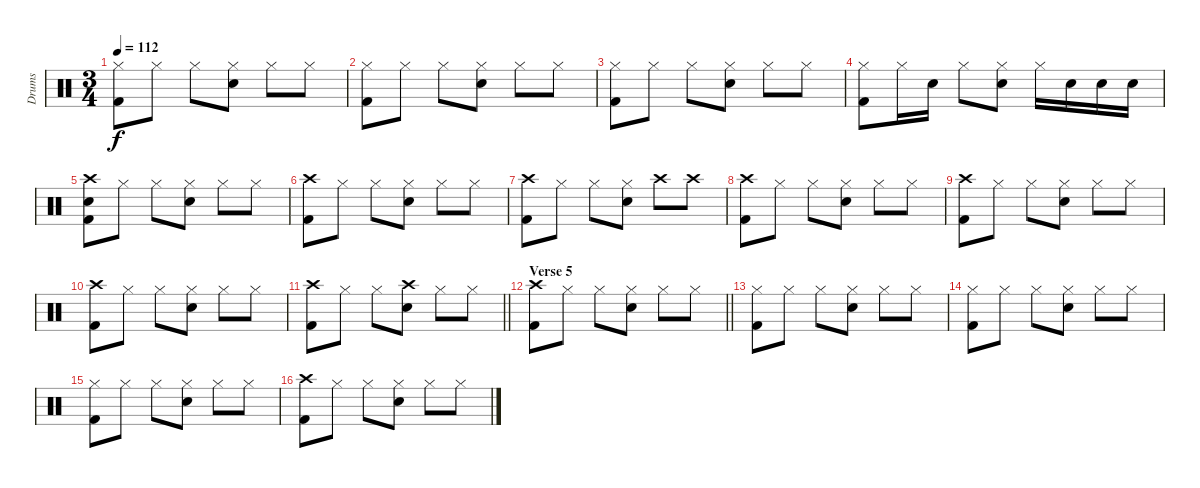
\track ("Drums" "Drums") {instrument percussion}
\staff {score}
\articulation defaults
\ts (3 4)
\tempo 112
\clef neutral
\ks c
("Hi-Hat (closed)" "Kick (hit) 2").8{dy f} "Hi-Hat (closed)".8 "Hi-Hat (closed)".8 ("Hi-Hat (closed)" "Snare (hit) 2").8 "Hi-Hat (closed)".8 "Hi-Hat (closed)".8 |
("Hi-Hat (closed)" "Kick (hit) 2").8 "Hi-Hat (closed)".8 "Hi-Hat (closed)".8 ("Hi-Hat (closed)" "Snare (hit) 2").8 "Hi-Hat (closed)".8 "Hi-Hat (closed)".8 |
("Hi-Hat (closed)" "Kick (hit) 2").8 "Hi-Hat (closed)".8 "Hi-Hat (closed)".8 ("Hi-Hat (closed)" "Snare (hit) 2").8 "Hi-Hat (closed)".8 "Hi-Hat (closed)".8 |
("Hi-Hat (closed)" "Kick (hit) 2").8 "Hi-Hat (closed)".16 "Snare (hit) 2".16 "Hi-Hat (closed)".8 ("Hi-Hat (closed)" "Snare (hit) 2").8 "Hi-Hat (closed)".16 "Snare (hit) 2".16 "Snare (hit) 2".16 "Snare (hit) 2".16 |
("Crash high (hit)" "Snare (hit) 2" "Kick (hit) 2").8 "Hi-Hat (closed)".8 "Hi-Hat (closed)".8 ("Hi-Hat (closed)" "Snare (hit) 2").8 "Hi-Hat (closed)".8 "Hi-Hat (closed)".8 |
("Crash high (hit)" "Kick (hit) 2").8 "Hi-Hat (closed)".8 "Hi-Hat (closed)".8 ("Hi-Hat (closed)" "Snare (hit) 2").8 "Hi-Hat (closed)".8 "Hi-Hat (closed)".8 |
("Crash high (hit)" "Kick (hit) 2").8 "Hi-Hat (closed)".8 "Hi-Hat (closed)".8 ("Hi-Hat (closed)" "Snare (hit) 2").8 "Crash high (hit)".8 "Crash high (hit)".8 |
("Crash high (hit)" "Kick (hit) 2").8 "Hi-Hat (closed)".8 "Hi-Hat (closed)".8 ("Hi-Hat (closed)" "Snare (hit) 2").8 "Hi-Hat (closed)".8 "Hi-Hat (closed)".8 |
("Crash high (hit)" "Kick (hit) 2").8 "Hi-Hat (closed)".8 "Hi-Hat (closed)".8 ("Hi-Hat (closed)" "Snare (hit) 2").8 "Hi-Hat (closed)".8 "Hi-Hat (closed)".8 |
("Crash high (hit)" "Kick (hit) 2").8 "Hi-Hat (closed)".8 "Hi-Hat (closed)".8 ("Hi-Hat (closed)" "Snare (hit) 2").8 "Hi-Hat (closed)".8 "Hi-Hat (closed)".8 |
\barLineRight lightlight
("Crash high (hit)" "Kick (hit) 2").8 "Hi-Hat (closed)".8 "Hi-Hat (closed)".8 ("Crash high (hit)" "Snare (hit) 2").8 "Hi-Hat (closed)".8 "Hi-Hat (closed)".8 |
\section ("" "Verse 5")
\barLineRight lightlight
("Crash high (hit)" "Kick (hit) 2").8 "Hi-Hat (closed)".8 "Hi-Hat (closed)".8 ("Hi-Hat (closed)" "Snare (hit) 2").8 "Hi-Hat (closed)".8 "Hi-Hat (closed)".8 |
\section ("" "")
("Hi-Hat (closed)" "Kick (hit) 2").8 "Hi-Hat (closed)".8 "Hi-Hat (closed)".8 ("Hi-Hat (closed)" "Snare (hit) 2").8 "Hi-Hat (closed)".8 "Hi-Hat (closed)".8 |
("Hi-Hat (closed)" "Kick (hit) 2").8 "Hi-Hat (closed)".8 "Hi-Hat (closed)".8 ("Hi-Hat (closed)" "Snare (hit) 2").8 "Hi-Hat (closed)".8 "Hi-Hat (closed)".8 |
("Hi-Hat (closed)" "Kick (hit) 2").8 "Hi-Hat (closed)".8 "Hi-Hat (closed)".8 ("Hi-Hat (closed)" "Snare (hit) 2").8 "Hi-Hat (closed)".8 "Hi-Hat (closed)".8 |
("Crash high (hit)" "Kick (hit) 2").8 "Hi-Hat (closed)".8 "Hi-Hat (closed)".8 ("Hi-Hat (closed)" "Snare (hit) 2").8 "Hi-Hat (closed)".8 "Hi-Hat (closed)".8
